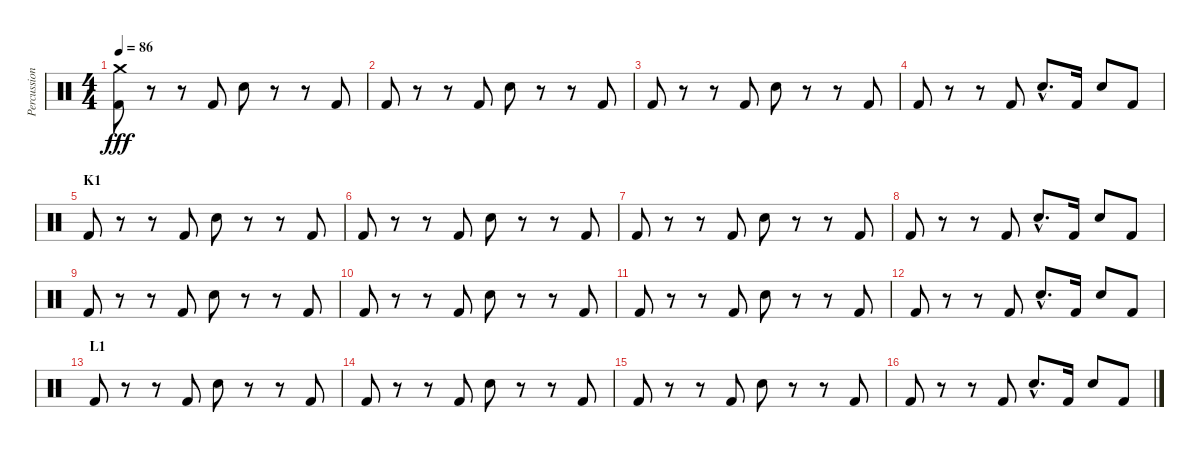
\track ("Percussion" "Percussion") {instrument percussion}
\staff {score}
\articulation defaults
\ts (4 4)
\tempo 86
\clef neutral
\ks c
("Kick (hit) 2" "Crash medium (hit)").8{dy fff} r.8 r.8 "Kick (hit) 2".8 "Electric Snare (hit)".8 r.8 r.8 "Kick (hit) 2".8 |
"Kick (hit) 2".8 r.8 r.8 "Kick (hit) 2".8 "Electric Snare (hit)".8 r.8 r.8 "Kick (hit) 2".8 |
"Kick (hit) 2".8 r.8 r.8 "Kick (hit) 2".8 "Electric Snare (hit)".8 r.8 r.8 "Kick (hit) 2".8 |
"Kick (hit) 2".8 r.8 r.8 "Kick (hit) 2".8 "Electric Snare (hit)"{hac}.8{d} "Kick (hit) 2".16 "Electric Snare (hit)".8 "Kick (hit) 2".8 |
\section ("" "K1")
"Kick (hit) 2".8 r.8 r.8 "Kick (hit) 2".8 "Electric Snare (hit)".8 r.8 r.8 "Kick (hit) 2".8 |
"Kick (hit) 2".8 r.8 r.8 "Kick (hit) 2".8 "Electric Snare (hit)".8 r.8 r.8 "Kick (hit) 2".8 |
"Kick (hit) 2".8 r.8 r.8 "Kick (hit) 2".8 "Electric Snare (hit)".8 r.8 r.8 "Kick (hit) 2".8 |
"Kick (hit) 2".8 r.8 r.8 "Kick (hit) 2".8 "Electric Snare (hit)"{hac}.8{d} "Kick (hit) 2".16 "Electric Snare (hit)".8 "Kick (hit) 2".8 |
"Kick (hit) 2".8 r.8 r.8 "Kick (hit) 2".8 "Electric Snare (hit)".8 r.8 r.8 "Kick (hit) 2".8 |
"Kick (hit) 2".8 r.8 r.8 "Kick (hit) 2".8 "Electric Snare (hit)".8 r.8 r.8 "Kick (hit) 2".8 |
"Kick (hit) 2".8 r.8 r.8 "Kick (hit) 2".8 "Electric Snare (hit)".8 r.8 r.8 "Kick (hit) 2".8 |
"Kick (hit) 2".8 r.8 r.8 "Kick (hit) 2".8 "Electric Snare (hit)"{hac}.8{d} "Kick (hit) 2".16 "Electric Snare (hit)".8 "Kick (hit) 2".8 |
\section ("" "L1")
"Kick (hit) 2".8 r.8 r.8 "Kick (hit) 2".8 "Electric Snare (hit)".8 r.8 r.8 "Kick (hit) 2".8 |
"Kick (hit) 2".8 r.8 r.8 "Kick (hit) 2".8 "Electric Snare (hit)".8 r.8 r.8 "Kick (hit) 2".8 |
"Kick (hit) 2".8 r.8 r.8 "Kick (hit) 2".8 "Electric Snare (hit)".8 r.8 r.8 "Kick (hit) 2".8 |
"Kick (hit) 2".8 r.8 r.8 "Kick (hit) 2".8 "Electric Snare (hit)"{hac}.8{d} "Kick (hit) 2".16 "Electric Snare (hit)".8 "Kick (hit) 2".8
